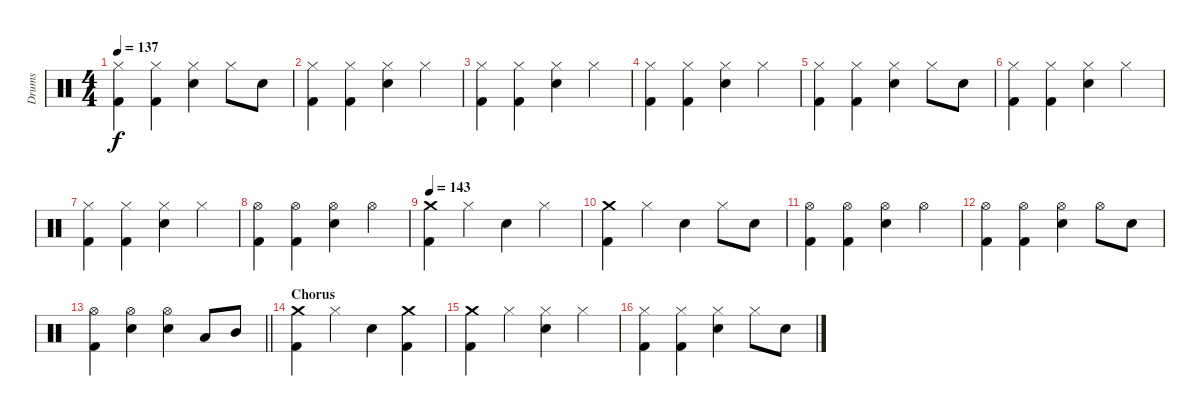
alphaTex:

\track ("Drums" "Drums") {mute instrument percussion}
\staff {score}
\articulation defaults
\ts (4 4)
\tempo 137
\clef neutral
\ks c
("Hi-Hat (closed)" "Kick (hit) 2").4{dy f} ("Hi-Hat (closed)" "Kick (hit) 2").4 ("Hi-Hat (closed)" "Snare (hit) 2").4 "Hi-Hat (closed)".8 "Snare (hit) 2".8 |
("Hi-Hat (closed)" "Kick (hit) 2").4 ("Hi-Hat (closed)" "Kick (hit) 2").4 ("Hi-Hat (closed)" "Snare (hit) 2").4 "Hi-Hat (closed)".4 |
("Hi-Hat (closed)" "Kick (hit) 2").4 ("Hi-Hat (closed)" "Kick (hit) 2").4 ("Hi-Hat (closed)" "Snare (hit) 2").4 "Hi-Hat (closed)".4 |
("Hi-Hat (closed)" "Kick (hit) 2").4 ("Hi-Hat (closed)" "Kick (hit) 2").4 ("Hi-Hat (closed)" "Snare (hit) 2").4 "Hi-Hat (closed)".4 |
("Hi-Hat (closed)" "Kick (hit) 2").4 ("Hi-Hat (closed)" "Kick (hit) 2").4 ("Hi-Hat (closed)" "Snare (hit) 2").4 "Hi-Hat (closed)".8 "Snare (hit) 2".8 |
("Hi-Hat (closed)" "Kick (hit) 2").4 ("Hi-Hat (closed)" "Kick (hit) 2").4 ("Hi-Hat (closed)" "Snare (hit) 2").4 "Hi-Hat (closed)".4 |
("Hi-Hat (closed)" "Kick (hit) 2").4 ("Hi-Hat (closed)" "Kick (hit) 2").4 ("Hi-Hat (closed)" "Snare (hit) 2").4 "Hi-Hat (closed)".4 |
("Hi-Hat (open)" "Kick (hit) 2").4 ("Hi-Hat (open)" "Kick (hit) 2").4 ("Hi-Hat (open)" "Snare (hit) 2").4 "Hi-Hat (open)".4 |
\tempo 143
("Crash medium (hit)" "Kick (hit) 2").4 "Hi-Hat (closed)".4 "Snare (hit) 2".4 "Hi-Hat (closed)".4 |
("Crash medium (hit)" "Kick (hit) 2").4 "Hi-Hat (closed)".4 "Snare (hit) 2".4 "Hi-Hat (closed)".8 "Snare (hit) 2".8 |
("Hi-Hat (open)" "Kick (hit) 2").4 ("Hi-Hat (open)" "Kick (hit) 2").4 ("Hi-Hat (open)" "Snare (hit) 2").4 "Hi-Hat (open)".4 |
("Hi-Hat (open)" "Kick (hit) 2").4 ("Hi-Hat (open)" "Kick (hit) 2").4 ("Hi-Hat (open)" "Snare (hit) 2").4 "Hi-Hat (open)".8 "Snare (hit) 2".8 |
\barLineRight lightlight
("Hi-Hat (open)" "Kick (hit) 2").4 ("Hi-Hat (open)" "Snare (hit) 2").4 ("Hi-Hat (open)" "Snare (hit) 2").4 "Low Tom (hit)".8 "Mid Tom (hit)".8 |
\section ("" "Chorus")
("Crash medium (hit)" "Kick (hit) 2").4 "Hi-Hat (closed)".4 "Snare (hit) 2".4 ("Crash medium (hit)" "Kick (hit) 2").4 |
("Crash medium (hit)" "Kick (hit) 2").4 "Hi-Hat (closed)".4 ("Hi-Hat (closed)" "Snare (hit) 2").4 "Hi-Hat (closed)".4 |
("Hi-Hat (closed)" "Kick (hit) 2").4 ("Hi-Hat (closed)" "Kick (hit) 2").4 ("Hi-Hat (closed)" "Snare (hit) 2").4 "Hi-Hat (closed)".8 "Snare (hit) 2".8
